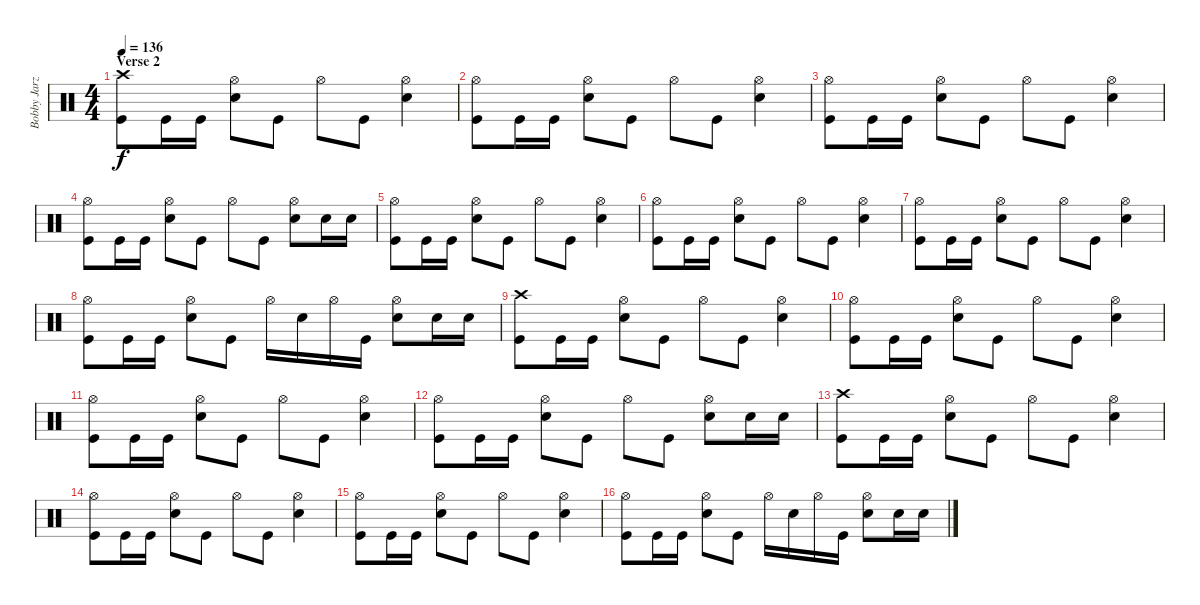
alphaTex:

\track ("Bobby Jarzombek" "Bobby Jarz") {instrument percussion}
\staff {score}
\articulation defaults
\ts (4 4)
\section ("" "Verse 2")
\tempo 136
\clef neutral
\ks c
("Crash high (hit)" "Kick (hit)").8{dy f} "Kick (hit)".16 "Kick (hit)".16 ("Hi-Hat (open)" "Electric Snare (hit)").8 "Kick (hit)".8 "Hi-Hat (open)".8 "Kick (hit)".8 ("Hi-Hat (open)" "Electric Snare (hit)").4 |
("Hi-Hat (open)" "Kick (hit)").8 "Kick (hit)".16 "Kick (hit)".16 ("Hi-Hat (open)" "Electric Snare (hit)").8 "Kick (hit)".8 "Hi-Hat (open)".8 "Kick (hit)".8 ("Hi-Hat (open)" "Electric Snare (hit)").4 |
("Hi-Hat (open)" "Kick (hit)").8 "Kick (hit)".16 "Kick (hit)".16 ("Hi-Hat (open)" "Electric Snare (hit)").8 "Kick (hit)".8 "Hi-Hat (open)".8 "Kick (hit)".8 ("Hi-Hat (open)" "Electric Snare (hit)").4 |
("Hi-Hat (open)" "Kick (hit)").8 "Kick (hit)".16 "Kick (hit)".16 ("Hi-Hat (open)" "Electric Snare (hit)").8 "Kick (hit)".8 "Hi-Hat (open)".8 "Kick (hit)".8 ("Hi-Hat (open)" "Electric Snare (hit)").8 "Electric Snare (hit)".16 "Electric Snare (hit)".16 |
("Hi-Hat (open)" "Kick (hit)").8 "Kick (hit)".16 "Kick (hit)".16 ("Hi-Hat (open)" "Electric Snare (hit)").8 "Kick (hit)".8 "Hi-Hat (open)".8 "Kick (hit)".8 ("Hi-Hat (open)" "Electric Snare (hit)").4 |
("Hi-Hat (open)" "Kick (hit)").8 "Kick (hit)".16 "Kick (hit)".16 ("Hi-Hat (open)" "Electric Snare (hit)").8 "Kick (hit)".8 "Hi-Hat (open)".8 "Kick (hit)".8 ("Hi-Hat (open)" "Electric Snare (hit)").4 |
("Hi-Hat (open)" "Kick (hit)").8 "Kick (hit)".16 "Kick (hit)".16 ("Hi-Hat (open)" "Electric Snare (hit)").8 "Kick (hit)".8 "Hi-Hat (open)".8 "Kick (hit)".8 ("Hi-Hat (open)" "Electric Snare (hit)").4 |
("Hi-Hat (open)" "Kick (hit)").8 "Kick (hit)".16 "Kick (hit)".16 ("Hi-Hat (open)" "Electric Snare (hit)").8 "Kick (hit)".8 "Hi-Hat (open)".16 "Electric Snare (hit)".16 "Hi-Hat (open)".16 "Kick (hit)".16 ("Hi-Hat (open)" "Electric Snare (hit)").8 "Electric Snare (hit)".16 "Electric Snare (hit)".16 |
("Crash high (hit)" "Kick (hit)").8 "Kick (hit)".16 "Kick (hit)".16 ("Hi-Hat (open)" "Electric Snare (hit)").8 "Kick (hit)".8 "Hi-Hat (open)".8 "Kick (hit)".8 ("Hi-Hat (open)" "Electric Snare (hit)").4 |
("Hi-Hat (open)" "Kick (hit)").8 "Kick (hit)".16 "Kick (hit)".16 ("Hi-Hat (open)" "Electric Snare (hit)").8 "Kick (hit)".8 "Hi-Hat (open)".8 "Kick (hit)".8 ("Hi-Hat (open)" "Electric Snare (hit)").4 |
("Hi-Hat (open)" "Kick (hit)").8 "Kick (hit)".16 "Kick (hit)".16 ("Hi-Hat (open)" "Electric Snare (hit)").8 "Kick (hit)".8 "Hi-Hat (open)".8 "Kick (hit)".8 ("Hi-Hat (open)" "Electric Snare (hit)").4 |
("Hi-Hat (open)" "Kick (hit)").8 "Kick (hit)".16 "Kick (hit)".16 ("Hi-Hat (open)" "Electric Snare (hit)").8 "Kick (hit)".8 "Hi-Hat (open)".8 "Kick (hit)".8 ("Hi-Hat (open)" "Electric Snare (hit)").8 "Electric Snare (hit)".16 "Electric Snare (hit)".16 |
("Crash high (hit)" "Kick (hit)").8 "Kick (hit)".16 "Kick (hit)".16 ("Hi-Hat (open)" "Electric Snare (hit)").8 "Kick (hit)".8 "Hi-Hat (open)".8 "Kick (hit)".8 ("Hi-Hat (open)" "Electric Snare (hit)").4 |
("Hi-Hat (open)" "Kick (hit)").8 "Kick (hit)".16 "Kick (hit)".16 ("Hi-Hat (open)" "Electric Snare (hit)").8 "Kick (hit)".8 "Hi-Hat (open)".8 "Kick (hit)".8 ("Hi-Hat (open)" "Electric Snare (hit)").4 |
("Hi-Hat (open)" "Kick (hit)").8 "Kick (hit)".16 "Kick (hit)".16 ("Hi-Hat (open)" "Electric Snare (hit)").8 "Kick (hit)".8 "Hi-Hat (open)".8 "Kick (hit)".8 ("Hi-Hat (open)" "Electric Snare (hit)").4 |
("Hi-Hat (open)" "Kick (hit)").8 "Kick (hit)".16 "Kick (hit)".16 ("Hi-Hat (open)" "Electric Snare (hit)").8 "Kick (hit)".8 "Hi-Hat (open)".16 "Electric Snare (hit)".16 "Hi-Hat (open)".16 "Kick (hit)".16 ("Hi-Hat (open)" "Electric Snare (hit)").8 "Electric Snare (hit)".16 "Electric Snare (hit)".16
